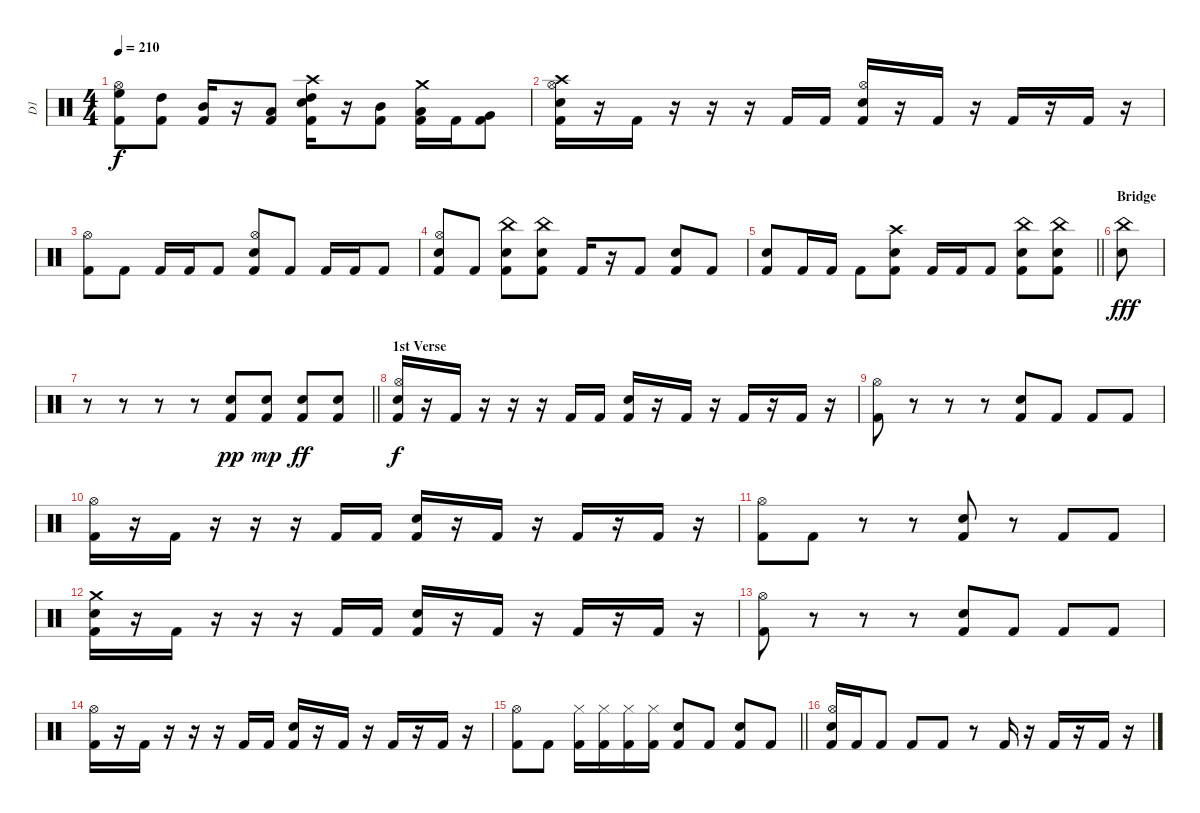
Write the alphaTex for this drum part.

\track ("D1" "D1") {instrument percussion}
\staff {score}
\articulation defaults
\ts (4 4)
\tempo 210
\clef neutral
\ks c
("Kick (hit) 2" "Hi-Hat (open)" "High Floor Tom (hit)").8{dy f} ("Kick (hit) 2" "High Tom (hit)").8 ("Kick (hit) 2" "Mid Tom (hit)").16 r.16 ("Kick (hit) 2" "Low Tom (hit)").8 ("Kick (hit) 2" "Snare (hit) 2" "Crash high (hit)" "High Tom (hit)").16 r.16 ("Kick (hit) 2" "Mid Tom (hit)").8 ("Kick (hit) 2" "Crash medium (hit)" "Low Tom (hit)").16 "Kick (hit) 2".16 ("Kick (hit) 2" "Very Low Tom (hit)").8 |
("Hi-Hat (open)" "Kick (hit) 2" "Snare (hit) 2" "Crash high (hit)").16 r.16 "Kick (hit) 2".16 r.16 r.16 r.16 "Kick (hit) 2".16 "Kick (hit) 2".16 ("Snare (hit) 2" "Kick (hit) 2" "Hi-Hat (open)").16 r.16 "Kick (hit) 2".16 r.16 "Kick (hit) 2".16 r.16 "Kick (hit) 2".16 r.16 |
("Kick (hit) 2" "Hi-Hat (open)").8 "Kick (hit) 2".8 "Kick (hit) 2".16 "Kick (hit) 2".16 "Kick (hit) 2".8 ("Kick (hit) 2" "Snare (hit) 2" "Hi-Hat (open)").8 "Kick (hit) 2".8 "Kick (hit) 2".16 "Kick (hit) 2".16 "Kick (hit) 2".8 |
("Hi-Hat (open)" "Kick (hit) 2" "Snare (hit) 2").8 "Kick (hit) 2".8 ("China (hit)" "Kick (hit) 2" "Snare (hit) 2").8 ("China (hit)" "Kick (hit) 2" "Snare (hit) 2").8 "Kick (hit) 2".16 r.16 "Kick (hit) 2".8 ("Kick (hit) 2" "Snare (hit) 2").8 "Kick (hit) 2".8 |
\barLineRight lightlight
("Kick (hit) 2" "Snare (hit) 2").8 "Kick (hit) 2".16 "Kick (hit) 2".16 "Kick (hit) 2".8 ("Crash high (hit)" "Kick (hit) 2" "Snare (hit) 2").8 "Kick (hit) 2".16 "Kick (hit) 2".16 "Kick (hit) 2".8 ("China (hit)" "Kick (hit) 2" "Snare (hit) 2").8 ("China (hit)" "Kick (hit) 2" "Snare (hit) 2").8 |
\section ("" "Bridge")
("China (hit)" "Snare (hit) 2").8{dy fff} |
\barLineRight lightlight
r.8 r.8 r.8 r.8 ("Snare (hit) 2" "Kick (hit) 2").8{dy pp} ("Snare (hit) 2" "Kick (hit) 2").8{dy mp} ("Snare (hit) 2" "Kick (hit) 2").8{dy ff} ("Snare (hit) 2" "Kick (hit) 2").8 |
\section ("" "1st Verse")
("Hi-Hat (open)" "Kick (hit) 2" "Snare (hit) 2").16{dy f} r.16 "Kick (hit) 2".16 r.16 r.16 r.16 "Kick (hit) 2".16 "Kick (hit) 2".16 ("Snare (hit) 2" "Kick (hit) 2").16 r.16 "Kick (hit) 2".16 r.16 "Kick (hit) 2".16 r.16 "Kick (hit) 2".16 r.16 |
("Hi-Hat (open)" "Kick (hit) 2").8 r.8 r.8 r.8 ("Snare (hit) 2" "Kick (hit) 2").8 "Kick (hit) 2".8 "Kick (hit) 2".8 "Kick (hit) 2".8 |
("Hi-Hat (open)" "Kick (hit) 2").16 r.16 "Kick (hit) 2".16 r.16 r.16 r.16 "Kick (hit) 2".16 "Kick (hit) 2".16 ("Snare (hit) 2" "Kick (hit) 2").16 r.16 "Kick (hit) 2".16 r.16 "Kick (hit) 2".16 r.16 "Kick (hit) 2".16 r.16 |
("Hi-Hat (open)" "Kick (hit) 2").8 "Kick (hit) 2".8 r.8 r.8 ("Snare (hit) 2" "Kick (hit) 2").8 r.8 "Kick (hit) 2".8 "Kick (hit) 2".8 |
("Crash medium (hit)" "Kick (hit) 2" "Snare (hit) 2").16 r.16 "Kick (hit) 2".16 r.16 r.16 r.16 "Kick (hit) 2".16 "Kick (hit) 2".16 ("Snare (hit) 2" "Kick (hit) 2").16 r.16 "Kick (hit) 2".16 r.16 "Kick (hit) 2".16 r.16 "Kick (hit) 2".16 r.16 |
("Hi-Hat (open)" "Kick (hit) 2").8 r.8 r.8 r.8 ("Snare (hit) 2" "Kick (hit) 2").8 "Kick (hit) 2".8 "Kick (hit) 2".8 "Kick (hit) 2".8 |
("Hi-Hat (open)" "Kick (hit) 2").16 r.16 "Kick (hit) 2".16 r.16 r.16 r.16 "Kick (hit) 2".16 "Kick (hit) 2".16 ("Snare (hit) 2" "Kick (hit) 2").16 r.16 "Kick (hit) 2".16 r.16 "Kick (hit) 2".16 r.16 "Kick (hit) 2".16 r.16 |
\barLineRight lightlight
("Hi-Hat (open)" "Kick (hit) 2").8 "Kick (hit) 2".8 ("Hi-Hat (closed)" "Kick (hit) 2").16 ("Hi-Hat (closed)" "Kick (hit) 2").16 ("Hi-Hat (closed)" "Kick (hit) 2").16 ("Hi-Hat (closed)" "Kick (hit) 2").16 ("Snare (hit) 2" "Kick (hit) 2").8 "Kick (hit) 2".8 ("Snare (hit) 2" "Kick (hit) 2").8 "Kick (hit) 2".8 |
\section ("" "")
("Kick (hit) 2" "Snare (hit) 2" "Hi-Hat (open)").16 "Kick (hit) 2".16 "Kick (hit) 2".8 "Kick (hit) 2".8 "Kick (hit) 2".8 r.8 "Kick (hit) 2".16 r.16 "Kick (hit) 2".16 r.16 "Kick (hit) 2".16 r.16
